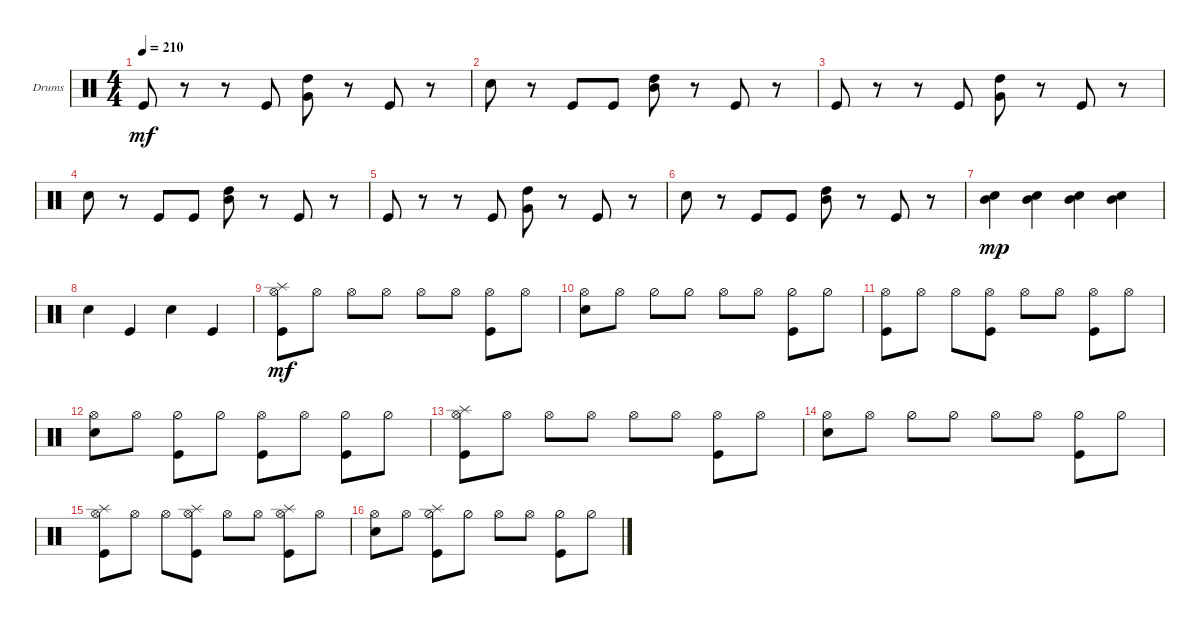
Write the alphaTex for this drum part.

\bracketExtendMode groupsimilarinstruments
\firstSystemTrackNameOrientation horizontal
\otherSystemsTrackNameOrientation horizontal
\track ("Drumkit" "Drums") {instrument percussion}
\staff {score}
\articulation defaults
\ts (4 4)
\tempo 210
\clef neutral
\ks c "Kick (hit)".8{dy mf}
r.8 r.8 "Kick (hit)".8 ("Very Low Tom (hit)" "High Tom (hit)").8 r.8 "Kick (hit)".8 r.8 |
"Snare (hit) 2".8 r.8 "Kick (hit)".8 "Kick (hit)".8 ("High Tom (hit)" "Mid Tom (hit)").8 r.8 "Kick (hit)".8 r.8 |
"Kick (hit)".8 r.8 r.8 "Kick (hit)".8 ("Very Low Tom (hit)" "High Tom (hit)").8 r.8 "Kick (hit)".8 r.8 |
"Snare (hit) 2".8 r.8 "Kick (hit)".8 "Kick (hit)".8 ("High Tom (hit)" "Mid Tom (hit)").8 r.8 "Kick (hit)".8 r.8 |
"Kick (hit)".8 r.8 r.8 "Kick (hit)".8 ("Very Low Tom (hit)" "High Tom (hit)").8 r.8 "Kick (hit)".8 r.8 |
"Snare (hit) 2".8 r.8 "Kick (hit)".8 "Kick (hit)".8 ("High Tom (hit)" "Mid Tom (hit)").8 r.8 "Kick (hit)".8 r.8 |
("Snare (hit) 2" "Mid Tom (hit)").4{dy mp} ("Snare (hit) 2" "Mid Tom (hit)").4 ("Snare (hit) 2" "Mid Tom (hit)").4 ("Snare (hit) 2" "Mid Tom (hit)").4 |
"Snare (hit) 2".4 "Kick (hit)".4 "Snare (hit) 2".4 "Kick (hit)".4 |
("Kick (hit)" "Splash (hit)" "Hi-Hat (open)").8{dy mf} "Hi-Hat (open)".8 "Hi-Hat (open)".8 "Hi-Hat (open)".8 "Hi-Hat (open)".8 "Hi-Hat (open)".8 ("Kick (hit)" "Hi-Hat (open)").8 "Hi-Hat (open)".8 |
("Snare (hit) 2" "Hi-Hat (open)").8 "Hi-Hat (open)".8 "Hi-Hat (half)".8 "Hi-Hat (half)".8 "Hi-Hat (open)".8 "Hi-Hat (open)".8 ("Kick (hit)" "Hi-Hat (half)").8 "Hi-Hat (half)".8 |
("Kick (hit)" "Hi-Hat (open)").8 "Hi-Hat (open)".8 "Hi-Hat (open)".8 ("Kick (hit)" "Hi-Hat (open)").8 "Hi-Hat (open)".8 "Hi-Hat (open)".8 ("Kick (hit)" "Hi-Hat (open)").8 "Hi-Hat (open)".8 |
("Snare (hit) 2" "Hi-Hat (open)").8 "Hi-Hat (open)".8 ("Kick (hit)" "Hi-Hat (half)").8 "Hi-Hat (half)".8 ("Kick (hit)" "Hi-Hat (open)").8 "Hi-Hat (open)".8 ("Kick (hit)" "Hi-Hat (half)").8 "Hi-Hat (half)".8 |
("Kick (hit)" "Hi-Hat (open)" "Splash (hit)").8 "Hi-Hat (open)".8 "Hi-Hat (open)".8 "Hi-Hat (open)".8 "Hi-Hat (open)".8 "Hi-Hat (open)".8 ("Kick (hit)" "Hi-Hat (open)").8 "Hi-Hat (open)".8 |
("Snare (hit) 2" "Hi-Hat (open)").8 "Hi-Hat (open)".8 "Hi-Hat (half)".8 "Hi-Hat (half)".8 "Hi-Hat (open)".8 "Hi-Hat (open)".8 ("Kick (hit)" "Hi-Hat (half)").8 "Hi-Hat (half)".8 |
("Kick (hit)" "Splash (hit)" "Hi-Hat (open)").8 "Hi-Hat (open)".8 "Hi-Hat (open)".8 ("Kick (hit)" "Splash (hit)" "Hi-Hat (open)").8 "Hi-Hat (open)".8 "Hi-Hat (open)".8 ("Kick (hit)" "Splash (hit)" "Hi-Hat (open)").8 "Hi-Hat (open)".8 |
("Snare (hit) 2" "Hi-Hat (open)").8 "Hi-Hat (open)".8 ("Kick (hit)" "Splash (hit)" "Hi-Hat (half)").8 "Hi-Hat (half)".8 "Hi-Hat (open)".8 "Hi-Hat (open)".8 ("Kick (hit)" "Hi-Hat (half)").8 "Hi-Hat (half)".8
